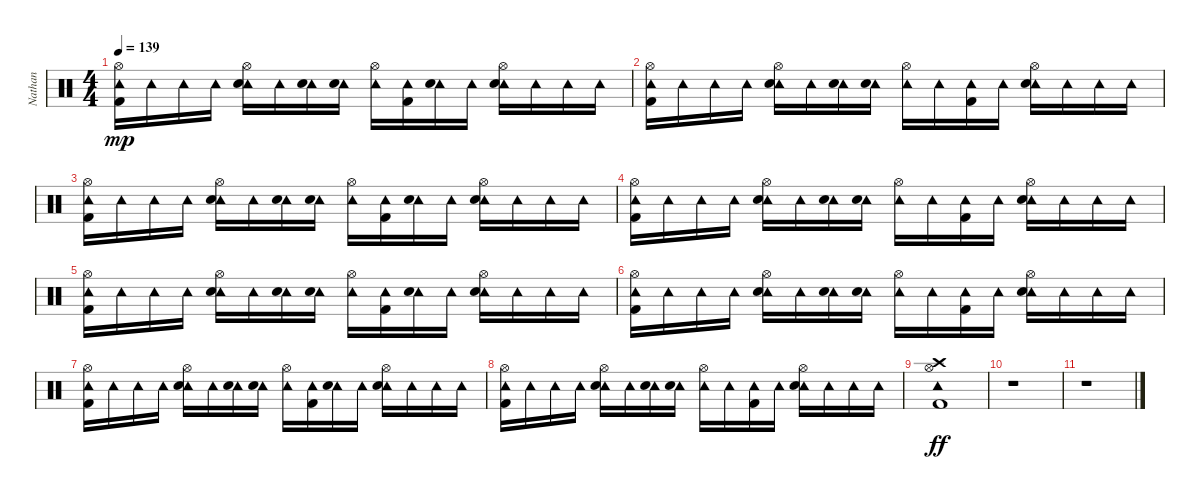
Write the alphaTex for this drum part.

\track ("Nathan" "Nathan") {instrument percussion}
\staff {score}
\articulation defaults
\ts (4 4)
\tempo 139
\clef neutral
\ks c
("Hi-Hat (open)" "Tambourine (hit)" "Kick (hit) 2").16{dy mp} "Tambourine (hit)".16 "Tambourine (hit)".16 "Tambourine (hit)".16 ("Hi-Hat (open)" "Tambourine (hit)" "Electric Snare (hit)").16 "Tambourine (hit)".16 ("Tambourine (hit)" "Electric Snare (hit)").16 ("Tambourine (hit)" "Electric Snare (hit)").16 ("Hi-Hat (open)" "Tambourine (hit)").16 ("Tambourine (hit)" "Kick (hit) 2").16 ("Tambourine (hit)" "Electric Snare (hit)").16 "Tambourine (hit)".16 ("Hi-Hat (open)" "Tambourine (hit)" "Electric Snare (hit)").16 "Tambourine (hit)".16 "Tambourine (hit)".16 "Tambourine (hit)".16 |
("Hi-Hat (open)" "Tambourine (hit)" "Kick (hit) 2").16 "Tambourine (hit)".16 "Tambourine (hit)".16 "Tambourine (hit)".16 ("Hi-Hat (open)" "Tambourine (hit)" "Electric Snare (hit)").16 "Tambourine (hit)".16 ("Tambourine (hit)" "Electric Snare (hit)").16 ("Tambourine (hit)" "Electric Snare (hit)").16 ("Hi-Hat (open)" "Tambourine (hit)").16 "Tambourine (hit)".16 ("Tambourine (hit)" "Kick (hit) 2").16 "Tambourine (hit)".16 ("Hi-Hat (open)" "Tambourine (hit)" "Electric Snare (hit)").16 "Tambourine (hit)".16 "Tambourine (hit)".16 "Tambourine (hit)".16 |
("Hi-Hat (open)" "Tambourine (hit)" "Kick (hit) 2").16 "Tambourine (hit)".16 "Tambourine (hit)".16 "Tambourine (hit)".16 ("Hi-Hat (open)" "Tambourine (hit)" "Electric Snare (hit)").16 "Tambourine (hit)".16 ("Tambourine (hit)" "Electric Snare (hit)").16 ("Tambourine (hit)" "Electric Snare (hit)").16 ("Hi-Hat (open)" "Tambourine (hit)").16 ("Tambourine (hit)" "Kick (hit) 2").16 ("Tambourine (hit)" "Electric Snare (hit)").16 "Tambourine (hit)".16 ("Hi-Hat (open)" "Tambourine (hit)" "Electric Snare (hit)").16 "Tambourine (hit)".16 "Tambourine (hit)".16 "Tambourine (hit)".16 |
("Hi-Hat (open)" "Tambourine (hit)" "Kick (hit) 2").16 "Tambourine (hit)".16 "Tambourine (hit)".16 "Tambourine (hit)".16 ("Hi-Hat (open)" "Tambourine (hit)" "Electric Snare (hit)").16 "Tambourine (hit)".16 ("Tambourine (hit)" "Electric Snare (hit)").16 ("Tambourine (hit)" "Electric Snare (hit)").16 ("Hi-Hat (open)" "Tambourine (hit)").16 "Tambourine (hit)".16 ("Tambourine (hit)" "Kick (hit) 2").16 "Tambourine (hit)".16 ("Hi-Hat (open)" "Tambourine (hit)" "Electric Snare (hit)").16 "Tambourine (hit)".16 "Tambourine (hit)".16 "Tambourine (hit)".16 |
("Hi-Hat (open)" "Tambourine (hit)" "Kick (hit) 2").16 "Tambourine (hit)".16 "Tambourine (hit)".16 "Tambourine (hit)".16 ("Hi-Hat (open)" "Tambourine (hit)" "Electric Snare (hit)").16 "Tambourine (hit)".16 ("Tambourine (hit)" "Electric Snare (hit)").16 ("Tambourine (hit)" "Electric Snare (hit)").16 ("Hi-Hat (open)" "Tambourine (hit)").16 ("Tambourine (hit)" "Kick (hit) 2").16 ("Tambourine (hit)" "Electric Snare (hit)").16 "Tambourine (hit)".16 ("Hi-Hat (open)" "Tambourine (hit)" "Electric Snare (hit)").16 "Tambourine (hit)".16 "Tambourine (hit)".16 "Tambourine (hit)".16 |
("Hi-Hat (open)" "Tambourine (hit)" "Kick (hit) 2").16 "Tambourine (hit)".16 "Tambourine (hit)".16 "Tambourine (hit)".16 ("Hi-Hat (open)" "Tambourine (hit)" "Electric Snare (hit)").16 "Tambourine (hit)".16 ("Tambourine (hit)" "Electric Snare (hit)").16 ("Tambourine (hit)" "Electric Snare (hit)").16 ("Hi-Hat (open)" "Tambourine (hit)").16 "Tambourine (hit)".16 ("Tambourine (hit)" "Kick (hit) 2").16 "Tambourine (hit)".16 ("Hi-Hat (open)" "Tambourine (hit)" "Electric Snare (hit)").16 "Tambourine (hit)".16 "Tambourine (hit)".16 "Tambourine (hit)".16 |
("Hi-Hat (open)" "Tambourine (hit)" "Kick (hit) 2").16 "Tambourine (hit)".16 "Tambourine (hit)".16 "Tambourine (hit)".16 ("Hi-Hat (open)" "Tambourine (hit)" "Electric Snare (hit)").16 "Tambourine (hit)".16 ("Tambourine (hit)" "Electric Snare (hit)").16 ("Tambourine (hit)" "Electric Snare (hit)").16 ("Hi-Hat (open)" "Tambourine (hit)").16 ("Tambourine (hit)" "Kick (hit) 2").16 ("Tambourine (hit)" "Electric Snare (hit)").16 "Tambourine (hit)".16 ("Hi-Hat (open)" "Tambourine (hit)" "Electric Snare (hit)").16 "Tambourine (hit)".16 "Tambourine (hit)".16 "Tambourine (hit)".16 |
("Hi-Hat (open)" "Tambourine (hit)" "Kick (hit) 2").16 "Tambourine (hit)".16 "Tambourine (hit)".16 "Tambourine (hit)".16 ("Hi-Hat (open)" "Tambourine (hit)" "Electric Snare (hit)").16 "Tambourine (hit)".16 ("Tambourine (hit)" "Electric Snare (hit)").16 ("Tambourine (hit)" "Electric Snare (hit)").16 ("Hi-Hat (open)" "Tambourine (hit)").16 "Tambourine (hit)".16 ("Tambourine (hit)" "Kick (hit) 2").16 "Tambourine (hit)".16 ("Hi-Hat (open)" "Tambourine (hit)" "Electric Snare (hit)").16 "Tambourine (hit)".16 "Tambourine (hit)".16 "Tambourine (hit)".16 |
("Hi-Hat (open)" "Tambourine (hit)" "Crash high (hit)" "Kick (hit) 2").1{dy ff} |
r.1 |
r.1
